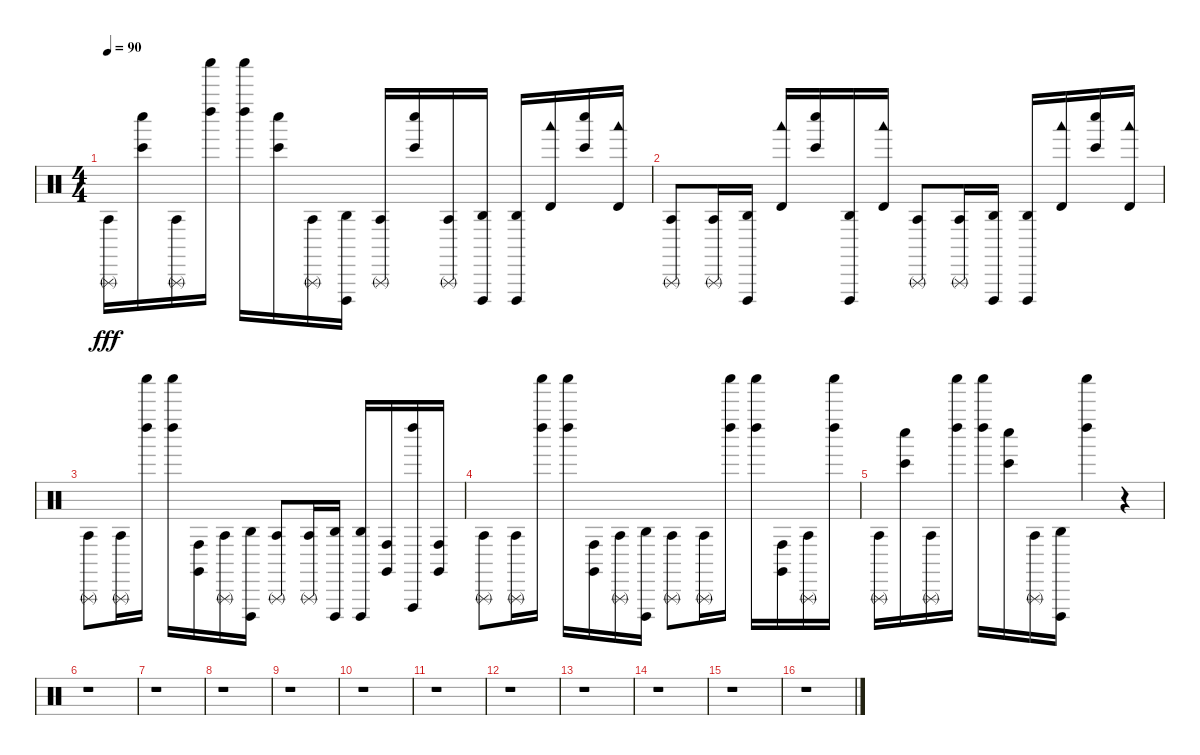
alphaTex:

\track "" {instrument percussion}
\staff {score}
\articulation defaults
\ts (4 4)
\tempo 90
\clef neutral
\ks c
("Agogo tow (hit)" "Triangle (rnute)").16{dy fff} ("Bongo High (hit)" "Whistle low (hit)").16 ("Agogo tow (hit)" "Triangle (rnute)").16 ("Left Maraca (hit)" "Shaker (hit)").16 ("Left Maraca (hit)" "Shaker (hit)").16 ("Bongo High (hit)" "Whistle low (hit)").16 ("Agogo tow (hit)" "Triangle (rnute)").16 ("Agogo high (hit)" "Cuica (open)").16 ("Agogo tow (hit)" "Triangle (rnute)").16 ("Bongo High (hit)" "Whistle low (hit)").16 ("Agogo tow (hit)" "Triangle (rnute)").16 ("Agogo high (hit)" "Cuica (open)").16 ("Agogo high (hit)" "Cuica (open)").16 ("Timbale high (hit)" "Woodblock low (hit)").16 ("Bongo High (hit)" "Whistle low (hit)").16 ("Timbale high (hit)" "Woodblock low (hit)").16 |
("Agogo tow (hit)" "Triangle (rnute)").8 ("Agogo tow (hit)" "Triangle (rnute)").16 ("Agogo high (hit)" "Cuica (open)").16 ("Timbale high (hit)" "Woodblock low (hit)").16 ("Bongo High (hit)" "Whistle low (hit)").16 ("Agogo high (hit)" "Cuica (open)").16 ("Timbale high (hit)" "Woodblock low (hit)").16 ("Agogo tow (hit)" "Triangle (rnute)").8 ("Agogo tow (hit)" "Triangle (rnute)").16 ("Agogo high (hit)" "Cuica (open)").16 ("Agogo high (hit)" "Cuica (open)").16 ("Timbale high (hit)" "Woodblock low (hit)").16 ("Bongo High (hit)" "Whistle low (hit)").16 ("Timbale high (hit)" "Woodblock low (hit)").16 |
("Agogo tow (hit)" "Triangle (rnute)").8 ("Agogo tow (hit)" "Triangle (rnute)").16 ("Left Maraca (hit)" "Shaker (hit)").16 ("Left Maraca (hit)" "Shaker (hit)").16 ("Conga high (hit)" "Claves (hit)").16 ("Agogo tow (hit)" "Triangle (rnute)").16 ("Agogo high (hit)" "Cuica (open)").16 ("Agogo tow (hit)" "Triangle (rnute)").8 ("Agogo tow (hit)" "Triangle (rnute)").16 ("Agogo high (hit)" "Cuica (open)").16 ("Agogo high (hit)" "Cuica (open)").16 ("Conga high (hit)" "Claves (hit)").16 ("Vibraslap (hit)" "Left Maraca (hit)").16 ("Conga high (hit)" "Claves (hit)").16 |
("Agogo tow (hit)" "Triangle (rnute)").8 ("Agogo tow (hit)" "Triangle (rnute)").16 ("Left Maraca (hit)" "Shaker (hit)").16 ("Left Maraca (hit)" "Shaker (hit)").16 ("Conga high (hit)" "Claves (hit)").16 ("Agogo tow (hit)" "Triangle (rnute)").16 ("Agogo high (hit)" "Cuica (open)").16 ("Agogo tow (hit)" "Triangle (rnute)").8 ("Agogo tow (hit)" "Triangle (rnute)").16 ("Left Maraca (hit)" "Shaker (hit)").16 ("Left Maraca (hit)" "Shaker (hit)").16 ("Conga high (hit)" "Claves (hit)").16 ("Agogo tow (hit)" "Triangle (rnute)").16 ("Left Maraca (hit)" "Shaker (hit)").16 |
("Agogo tow (hit)" "Triangle (rnute)").16 ("Bongo High (hit)" "Whistle low (hit)").16 ("Agogo tow (hit)" "Triangle (rnute)").16 ("Left Maraca (hit)" "Shaker (hit)").16 ("Left Maraca (hit)" "Shaker (hit)").16 ("Bongo High (hit)" "Whistle low (hit)").16 ("Agogo tow (hit)" "Triangle (rnute)").16 ("Agogo high (hit)" "Cuica (open)").16 ("Left Maraca (hit)" "Shaker (hit)").4 r.4 |
r.1 |
r.1 |
r.1 |
r.1 |
r.1 |
r.1 |
r.1 |
r.1 |
r.1 |
r.1 |
r.1
